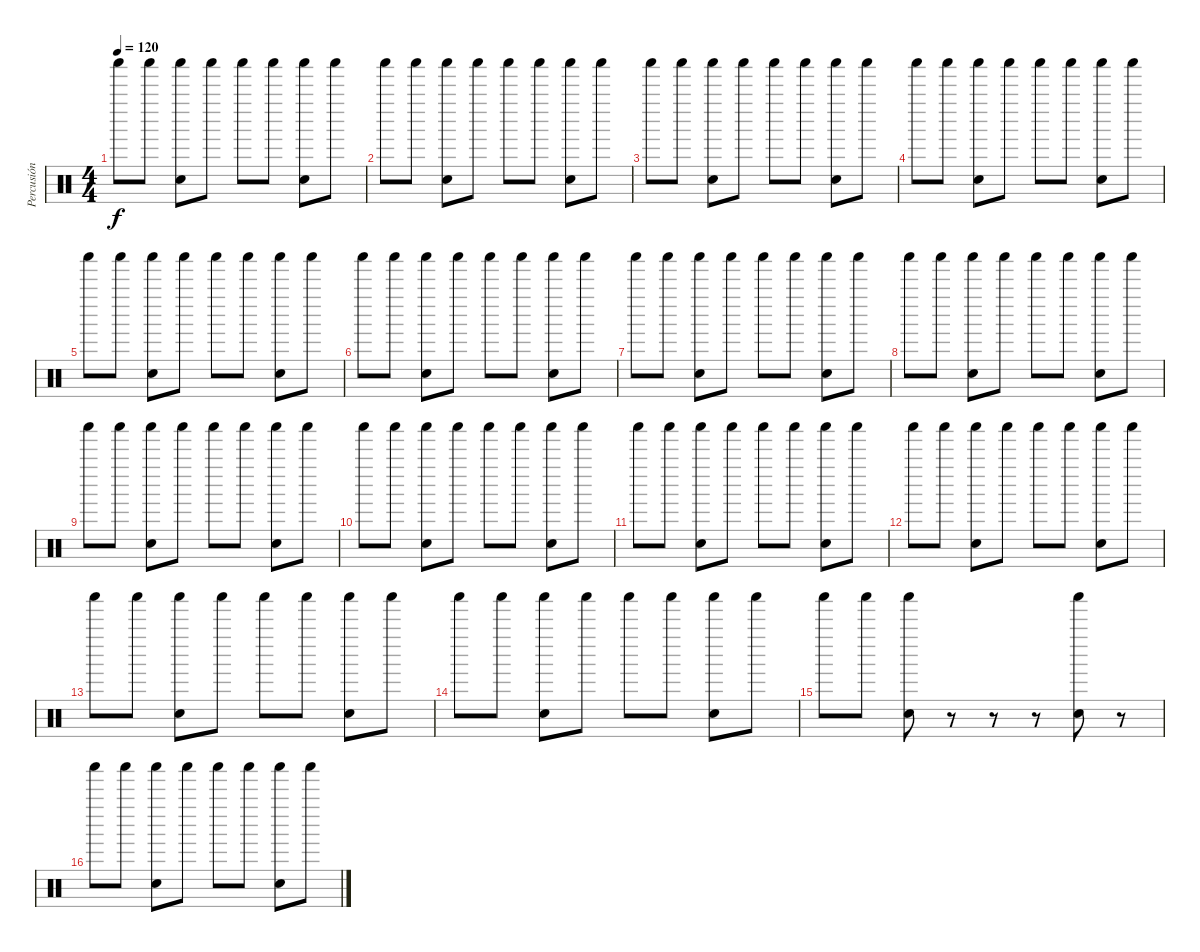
\track ("Percusión" "Percusión") {instrument percussion}
\staff {score}
\articulation defaults
\ts (4 4)
\tempo 120
\clef neutral
\ks c "Shaker (hit)".8{dy f} "Shaker (hit)".8
("Shaker (hit)" "Hand Clap (hit)").8 "Shaker (hit)".8 "Shaker (hit)".8 "Shaker (hit)".8 ("Shaker (hit)" "Hand Clap (hit)").8 "Shaker (hit)".8 |
"Shaker (hit)".8 "Shaker (hit)".8 ("Shaker (hit)" "Hand Clap (hit)").8 "Shaker (hit)".8 "Shaker (hit)".8 "Shaker (hit)".8 ("Shaker (hit)" "Hand Clap (hit)").8 "Shaker (hit)".8 |
"Shaker (hit)".8 "Shaker (hit)".8 ("Shaker (hit)" "Hand Clap (hit)").8 "Shaker (hit)".8 "Shaker (hit)".8 "Shaker (hit)".8 ("Shaker (hit)" "Hand Clap (hit)").8 "Shaker (hit)".8 |
"Shaker (hit)".8 "Shaker (hit)".8 ("Shaker (hit)" "Hand Clap (hit)").8 "Shaker (hit)".8 "Shaker (hit)".8 "Shaker (hit)".8 ("Shaker (hit)" "Hand Clap (hit)").8 "Shaker (hit)".8 |
"Shaker (hit)".8 "Shaker (hit)".8 ("Shaker (hit)" "Hand Clap (hit)").8 "Shaker (hit)".8 "Shaker (hit)".8 "Shaker (hit)".8 ("Shaker (hit)" "Hand Clap (hit)").8 "Shaker (hit)".8 |
"Shaker (hit)".8 "Shaker (hit)".8 ("Shaker (hit)" "Hand Clap (hit)").8 "Shaker (hit)".8 "Shaker (hit)".8 "Shaker (hit)".8 ("Shaker (hit)" "Hand Clap (hit)").8 "Shaker (hit)".8 |
"Shaker (hit)".8 "Shaker (hit)".8 ("Shaker (hit)" "Hand Clap (hit)").8 "Shaker (hit)".8 "Shaker (hit)".8 "Shaker (hit)".8 ("Shaker (hit)" "Hand Clap (hit)").8 "Shaker (hit)".8 |
"Shaker (hit)".8 "Shaker (hit)".8 ("Shaker (hit)" "Hand Clap (hit)").8 "Shaker (hit)".8 "Shaker (hit)".8 "Shaker (hit)".8 ("Shaker (hit)" "Hand Clap (hit)").8 "Shaker (hit)".8 |
"Shaker (hit)".8 "Shaker (hit)".8 ("Shaker (hit)" "Hand Clap (hit)").8 "Shaker (hit)".8 "Shaker (hit)".8 "Shaker (hit)".8 ("Shaker (hit)" "Hand Clap (hit)").8 "Shaker (hit)".8 |
"Shaker (hit)".8 "Shaker (hit)".8 ("Shaker (hit)" "Hand Clap (hit)").8 "Shaker (hit)".8 "Shaker (hit)".8 "Shaker (hit)".8 ("Shaker (hit)" "Hand Clap (hit)").8 "Shaker (hit)".8 |
"Shaker (hit)".8 "Shaker (hit)".8 ("Shaker (hit)" "Hand Clap (hit)").8 "Shaker (hit)".8 "Shaker (hit)".8 "Shaker (hit)".8 ("Shaker (hit)" "Hand Clap (hit)").8 "Shaker (hit)".8 |
"Shaker (hit)".8 "Shaker (hit)".8 ("Shaker (hit)" "Hand Clap (hit)").8 "Shaker (hit)".8 "Shaker (hit)".8 "Shaker (hit)".8 ("Shaker (hit)" "Hand Clap (hit)").8 "Shaker (hit)".8 |
"Shaker (hit)".8 "Shaker (hit)".8 ("Shaker (hit)" "Hand Clap (hit)").8 "Shaker (hit)".8 "Shaker (hit)".8 "Shaker (hit)".8 ("Shaker (hit)" "Hand Clap (hit)").8 "Shaker (hit)".8 |
"Shaker (hit)".8 "Shaker (hit)".8 ("Shaker (hit)" "Hand Clap (hit)").8 "Shaker (hit)".8 "Shaker (hit)".8 "Shaker (hit)".8 ("Shaker (hit)" "Hand Clap (hit)").8 "Shaker (hit)".8 |
"Shaker (hit)".8 "Shaker (hit)".8 ("Shaker (hit)" "Hand Clap (hit)").8 r.8 r.8 r.8 ("Shaker (hit)" "Hand Clap (hit)").8 r.8 |
"Shaker (hit)".8 "Shaker (hit)".8 ("Shaker (hit)" "Hand Clap (hit)").8 "Shaker (hit)".8 "Shaker (hit)".8 "Shaker (hit)".8 ("Shaker (hit)" "Hand Clap (hit)").8 "Shaker (hit)".8
